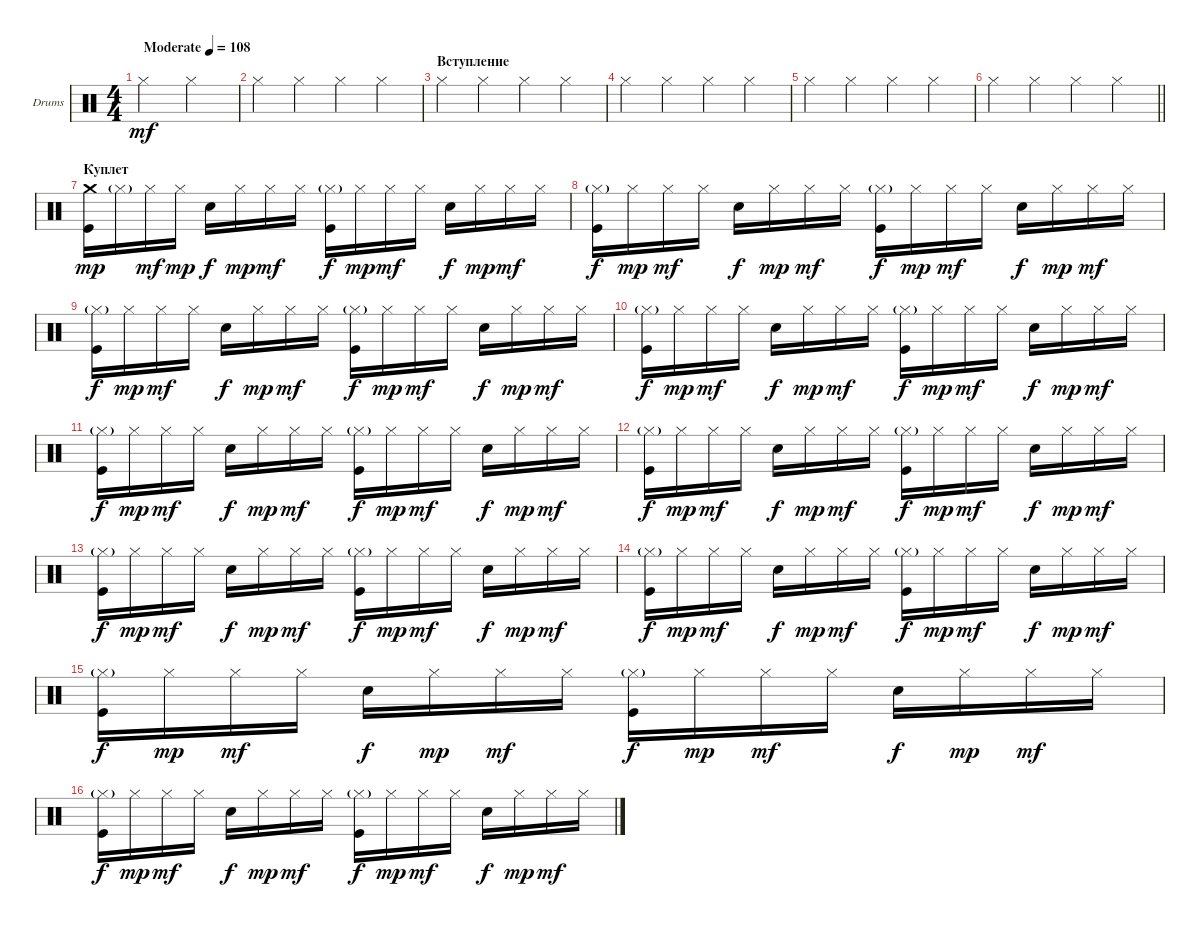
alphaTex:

\bracketExtendMode groupsimilarinstruments
\firstSystemTrackNameOrientation horizontal
\otherSystemsTrackNameOrientation horizontal
\track ("Е. Кулаков" "Drums") {instrument percussion}
\staff {score}
\articulation defaults
\ts (4 4)
\tempo (108 "Moderate")
\clef neutral
\ks c "Hi-Hat (closed)".2{dy mf} "Hi-Hat (closed)".2
|
"Hi-Hat (closed)".4 "Hi-Hat (closed)".4 "Hi-Hat (closed)".4 "Hi-Hat (closed)".4 |
\beaming (8 2 2 2 2)
\section ("" "Вступление")
"Hi-Hat (closed)".4 "Hi-Hat (closed)".4 "Hi-Hat (closed)".4 "Hi-Hat (closed)".4 |
"Hi-Hat (closed)".4 "Hi-Hat (closed)".4 "Hi-Hat (closed)".4 "Hi-Hat (closed)".4 |
"Hi-Hat (closed)".4 "Hi-Hat (closed)".4 "Hi-Hat (closed)".4 "Hi-Hat (closed)".4 |
\barLineRight lightlight "Hi-Hat (closed)".4 "Hi-Hat (closed)".4 "Hi-Hat (closed)".4 "Hi-Hat (closed)".4
|
\section ("" "Куплет")
("Crash medium (hit)" "Kick (hit)").16{dy mp} "Hi-Hat (closed)"{g}.16 "Hi-Hat (closed)".16{dy mf} "Hi-Hat (closed)".16{dy mp} "Snare (hit) 2".16{dy f} "Hi-Hat (closed)".16{dy mp} "Hi-Hat (closed)".16{dy mf} "Hi-Hat (closed)".16 ("Hi-Hat (closed)"{g} "Kick (hit)").16{dy f} "Hi-Hat (closed)".16{dy mp} "Hi-Hat (closed)".16{dy mf} "Hi-Hat (closed)".16 "Snare (hit) 2".16{dy f} "Hi-Hat (closed)".16{dy mp} "Hi-Hat (closed)".16{dy mf} "Hi-Hat (closed)".16 |
("Hi-Hat (closed)"{g} "Kick (hit)").16{dy f} "Hi-Hat (closed)".16{dy mp} "Hi-Hat (closed)".16{dy mf} "Hi-Hat (closed)".16 "Snare (hit) 2".16{dy f} "Hi-Hat (closed)".16{dy mp} "Hi-Hat (closed)".16{dy mf} "Hi-Hat (closed)".16 ("Hi-Hat (closed)"{g} "Kick (hit)").16{dy f} "Hi-Hat (closed)".16{dy mp} "Hi-Hat (closed)".16{dy mf} "Hi-Hat (closed)".16 "Snare (hit) 2".16{dy f} "Hi-Hat (closed)".16{dy mp} "Hi-Hat (closed)".16{dy mf} "Hi-Hat (closed)".16 |
("Hi-Hat (closed)"{g} "Kick (hit)").16{dy f} "Hi-Hat (closed)".16{dy mp} "Hi-Hat (closed)".16{dy mf} "Hi-Hat (closed)".16 "Snare (hit) 2".16{dy f} "Hi-Hat (closed)".16{dy mp} "Hi-Hat (closed)".16{dy mf} "Hi-Hat (closed)".16 ("Hi-Hat (closed)"{g} "Kick (hit)").16{dy f} "Hi-Hat (closed)".16{dy mp} "Hi-Hat (closed)".16{dy mf} "Hi-Hat (closed)".16 "Snare (hit) 2".16{dy f} "Hi-Hat (closed)".16{dy mp} "Hi-Hat (closed)".16{dy mf} "Hi-Hat (closed)".16 |
("Hi-Hat (closed)"{g} "Kick (hit)").16{dy f} "Hi-Hat (closed)".16{dy mp} "Hi-Hat (closed)".16{dy mf} "Hi-Hat (closed)".16 "Snare (hit) 2".16{dy f} "Hi-Hat (closed)".16{dy mp} "Hi-Hat (closed)".16{dy mf} "Hi-Hat (closed)".16 ("Hi-Hat (closed)"{g} "Kick (hit)").16{dy f} "Hi-Hat (closed)".16{dy mp} "Hi-Hat (closed)".16{dy mf} "Hi-Hat (closed)".16 "Snare (hit) 2".16{dy f} "Hi-Hat (closed)".16{dy mp} "Hi-Hat (closed)".16{dy mf} "Hi-Hat (closed)".16 |
("Hi-Hat (closed)"{g} "Kick (hit)").16{dy f} "Hi-Hat (closed)".16{dy mp} "Hi-Hat (closed)".16{dy mf} "Hi-Hat (closed)".16 "Snare (hit) 2".16{dy f} "Hi-Hat (closed)".16{dy mp} "Hi-Hat (closed)".16{dy mf} "Hi-Hat (closed)".16 ("Hi-Hat (closed)"{g} "Kick (hit)").16{dy f} "Hi-Hat (closed)".16{dy mp} "Hi-Hat (closed)".16{dy mf} "Hi-Hat (closed)".16 "Snare (hit) 2".16{dy f} "Hi-Hat (closed)".16{dy mp} "Hi-Hat (closed)".16{dy mf} "Hi-Hat (closed)".16 |
("Hi-Hat (closed)"{g} "Kick (hit)").16{dy f} "Hi-Hat (closed)".16{dy mp} "Hi-Hat (closed)".16{dy mf} "Hi-Hat (closed)".16 "Snare (hit) 2".16{dy f} "Hi-Hat (closed)".16{dy mp} "Hi-Hat (closed)".16{dy mf} "Hi-Hat (closed)".16 ("Hi-Hat (closed)"{g} "Kick (hit)").16{dy f} "Hi-Hat (closed)".16{dy mp} "Hi-Hat (closed)".16{dy mf} "Hi-Hat (closed)".16 "Snare (hit) 2".16{dy f} "Hi-Hat (closed)".16{dy mp} "Hi-Hat (closed)".16{dy mf} "Hi-Hat (closed)".16 |
("Hi-Hat (closed)"{g} "Kick (hit)").16{dy f} "Hi-Hat (closed)".16{dy mp} "Hi-Hat (closed)".16{dy mf} "Hi-Hat (closed)".16 "Snare (hit) 2".16{dy f} "Hi-Hat (closed)".16{dy mp} "Hi-Hat (closed)".16{dy mf} "Hi-Hat (closed)".16 ("Hi-Hat (closed)"{g} "Kick (hit)").16{dy f} "Hi-Hat (closed)".16{dy mp} "Hi-Hat (closed)".16{dy mf} "Hi-Hat (closed)".16 "Snare (hit) 2".16{dy f} "Hi-Hat (closed)".16{dy mp} "Hi-Hat (closed)".16{dy mf} "Hi-Hat (closed)".16 |
("Hi-Hat (closed)"{g} "Kick (hit)").16{dy f} "Hi-Hat (closed)".16{dy mp} "Hi-Hat (closed)".16{dy mf} "Hi-Hat (closed)".16 "Snare (hit) 2".16{dy f} "Hi-Hat (closed)".16{dy mp} "Hi-Hat (closed)".16{dy mf} "Hi-Hat (closed)".16 ("Hi-Hat (closed)"{g} "Kick (hit)").16{dy f} "Hi-Hat (closed)".16{dy mp} "Hi-Hat (closed)".16{dy mf} "Hi-Hat (closed)".16 "Snare (hit) 2".16{dy f} "Hi-Hat (closed)".16{dy mp} "Hi-Hat (closed)".16{dy mf} "Hi-Hat (closed)".16 |
("Hi-Hat (closed)"{g} "Kick (hit)").16{dy f} "Hi-Hat (closed)".16{dy mp} "Hi-Hat (closed)".16{dy mf} "Hi-Hat (closed)".16 "Snare (hit) 2".16{dy f} "Hi-Hat (closed)".16{dy mp} "Hi-Hat (closed)".16{dy mf} "Hi-Hat (closed)".16 ("Hi-Hat (closed)"{g} "Kick (hit)").16{dy f} "Hi-Hat (closed)".16{dy mp} "Hi-Hat (closed)".16{dy mf} "Hi-Hat (closed)".16 "Snare (hit) 2".16{dy f} "Hi-Hat (closed)".16{dy mp} "Hi-Hat (closed)".16{dy mf} "Hi-Hat (closed)".16 |
("Hi-Hat (closed)"{g} "Kick (hit)").16{dy f} "Hi-Hat (closed)".16{dy mp} "Hi-Hat (closed)".16{dy mf} "Hi-Hat (closed)".16 "Snare (hit) 2".16{dy f} "Hi-Hat (closed)".16{dy mp} "Hi-Hat (closed)".16{dy mf} "Hi-Hat (closed)".16 ("Hi-Hat (closed)"{g} "Kick (hit)").16{dy f} "Hi-Hat (closed)".16{dy mp} "Hi-Hat (closed)".16{dy mf} "Hi-Hat (closed)".16 "Snare (hit) 2".16{dy f} "Hi-Hat (closed)".16{dy mp} "Hi-Hat (closed)".16{dy mf} "Hi-Hat (closed)".16
